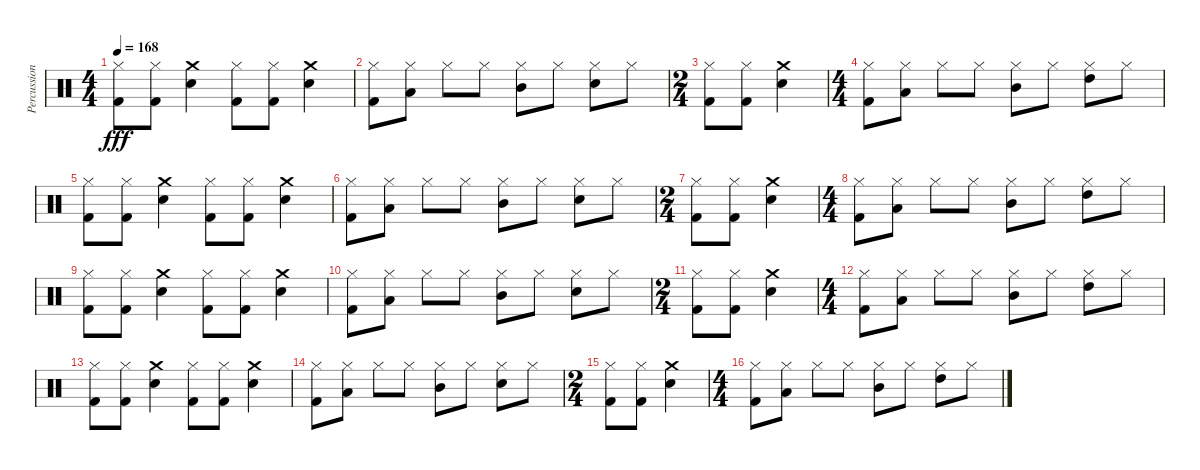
\track ("Percussion" "Percussion") {instrument percussion}
\staff {score}
\articulation defaults
\ts (4 4)
\tempo 168
\clef neutral
\ks c
("Hi-Hat (closed)" "Kick (hit) 2").8{dy fff} ("Hi-Hat (closed)" "Kick (hit) 2").8 ("Snare (hit) 2" "Crash medium (hit)").4 ("Kick (hit) 2" "Hi-Hat (closed)").8 ("Kick (hit) 2" "Hi-Hat (closed)").8 ("Crash medium (hit)" "Snare (hit) 2").4 |
("Hi-Hat (closed)" "Kick (hit) 2").8 ("Low Tom (hit)" "Hi-Hat (closed)").8 "Hi-Hat (closed)".8 "Hi-Hat (closed)".8 ("Mid Tom (hit)" "Hi-Hat (closed)").8 "Hi-Hat (closed)".8 ("Snare (hit) 2" "Hi-Hat (closed)").8 "Hi-Hat (closed)".8 |
\ts (2 4)
("Kick (hit) 2" "Hi-Hat (closed)").8 ("Kick (hit) 2" "Hi-Hat (closed)").8 ("Snare (hit) 2" "Crash medium (hit)").4 |
\ts (4 4)
("Hi-Hat (closed)" "Kick (hit) 2").8 ("Low Tom (hit)" "Hi-Hat (closed)").8 "Hi-Hat (closed)".8 "Hi-Hat (closed)".8 ("Mid Tom (hit)" "Hi-Hat (closed)").8 "Hi-Hat (closed)".8 ("Hi-Hat (closed)" "High Tom (hit)").8 "Hi-Hat (closed)".8 |
("Hi-Hat (closed)" "Kick (hit) 2").8 ("Hi-Hat (closed)" "Kick (hit) 2").8 ("Snare (hit) 2" "Crash medium (hit)").4 ("Kick (hit) 2" "Hi-Hat (closed)").8 ("Kick (hit) 2" "Hi-Hat (closed)").8 ("Crash medium (hit)" "Snare (hit) 2").4 |
("Hi-Hat (closed)" "Kick (hit) 2").8 ("Low Tom (hit)" "Hi-Hat (closed)").8 "Hi-Hat (closed)".8 "Hi-Hat (closed)".8 ("Mid Tom (hit)" "Hi-Hat (closed)").8 "Hi-Hat (closed)".8 ("Snare (hit) 2" "Hi-Hat (closed)").8 "Hi-Hat (closed)".8 |
\ts (2 4)
("Kick (hit) 2" "Hi-Hat (closed)").8 ("Kick (hit) 2" "Hi-Hat (closed)").8 ("Snare (hit) 2" "Crash medium (hit)").4 |
\ts (4 4)
("Hi-Hat (closed)" "Kick (hit) 2").8 ("Low Tom (hit)" "Hi-Hat (closed)").8 "Hi-Hat (closed)".8 "Hi-Hat (closed)".8 ("Mid Tom (hit)" "Hi-Hat (closed)").8 "Hi-Hat (closed)".8 ("Hi-Hat (closed)" "High Tom (hit)").8 "Hi-Hat (closed)".8 |
("Hi-Hat (closed)" "Kick (hit) 2").8 ("Hi-Hat (closed)" "Kick (hit) 2").8 ("Snare (hit) 2" "Crash medium (hit)").4 ("Kick (hit) 2" "Hi-Hat (closed)").8 ("Kick (hit) 2" "Hi-Hat (closed)").8 ("Crash medium (hit)" "Snare (hit) 2").4 |
("Hi-Hat (closed)" "Kick (hit) 2").8 ("Low Tom (hit)" "Hi-Hat (closed)").8 "Hi-Hat (closed)".8 "Hi-Hat (closed)".8 ("Mid Tom (hit)" "Hi-Hat (closed)").8 "Hi-Hat (closed)".8 ("Snare (hit) 2" "Hi-Hat (closed)").8 "Hi-Hat (closed)".8 |
\ts (2 4)
("Kick (hit) 2" "Hi-Hat (closed)").8 ("Kick (hit) 2" "Hi-Hat (closed)").8 ("Snare (hit) 2" "Crash medium (hit)").4 |
\ts (4 4)
("Hi-Hat (closed)" "Kick (hit) 2").8 ("Low Tom (hit)" "Hi-Hat (closed)").8 "Hi-Hat (closed)".8 "Hi-Hat (closed)".8 ("Mid Tom (hit)" "Hi-Hat (closed)").8 "Hi-Hat (closed)".8 ("Hi-Hat (closed)" "High Tom (hit)").8 "Hi-Hat (closed)".8 |
("Hi-Hat (closed)" "Kick (hit) 2").8 ("Hi-Hat (closed)" "Kick (hit) 2").8 ("Snare (hit) 2" "Crash medium (hit)").4 ("Kick (hit) 2" "Hi-Hat (closed)").8 ("Kick (hit) 2" "Hi-Hat (closed)").8 ("Crash medium (hit)" "Snare (hit) 2").4 |
("Hi-Hat (closed)" "Kick (hit) 2").8 ("Low Tom (hit)" "Hi-Hat (closed)").8 "Hi-Hat (closed)".8 "Hi-Hat (closed)".8 ("Mid Tom (hit)" "Hi-Hat (closed)").8 "Hi-Hat (closed)".8 ("Snare (hit) 2" "Hi-Hat (closed)").8 "Hi-Hat (closed)".8 |
\ts (2 4)
("Kick (hit) 2" "Hi-Hat (closed)").8 ("Kick (hit) 2" "Hi-Hat (closed)").8 ("Snare (hit) 2" "Crash medium (hit)").4 |
\ts (4 4)
("Hi-Hat (closed)" "Kick (hit) 2").8 ("Low Tom (hit)" "Hi-Hat (closed)").8 "Hi-Hat (closed)".8 "Hi-Hat (closed)".8 ("Mid Tom (hit)" "Hi-Hat (closed)").8 "Hi-Hat (closed)".8 ("Hi-Hat (closed)" "High Tom (hit)").8 "Hi-Hat (closed)".8
